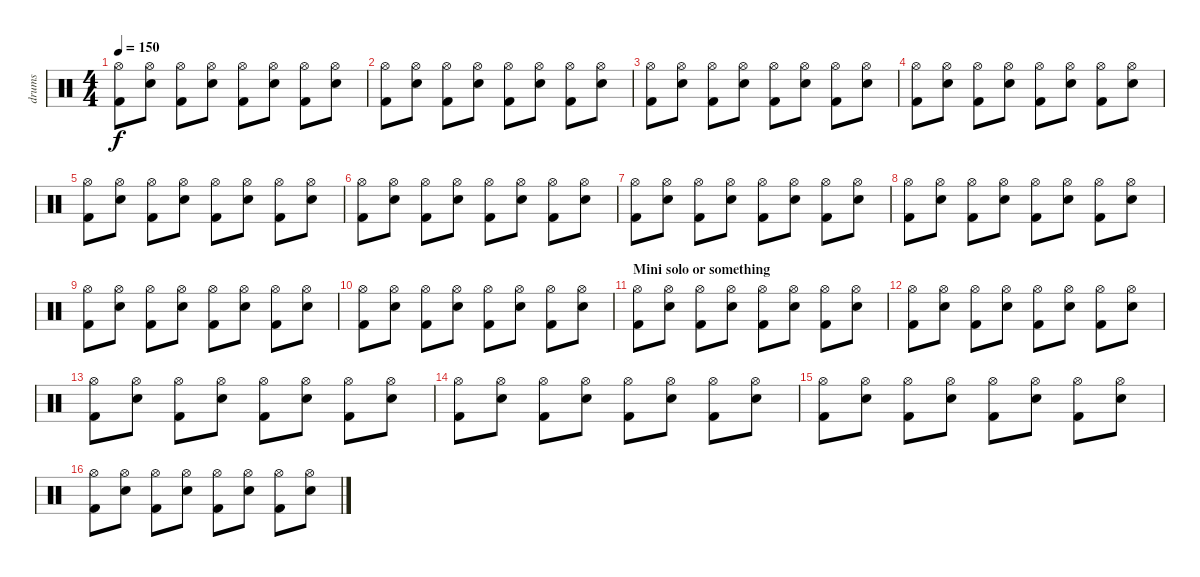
\track ("drums" "drums") {instrument percussion}
\staff {score}
\articulation defaults
\ts (4 4)
\tempo 150
\clef neutral
\ks c
("Hi-Hat (open)" "Kick (hit) 2").8{dy f} ("Hi-Hat (open)" "Snare (hit) 2").8 ("Hi-Hat (open)" "Kick (hit) 2").8 ("Hi-Hat (open)" "Snare (hit) 2").8 ("Hi-Hat (open)" "Kick (hit) 2").8 ("Hi-Hat (open)" "Snare (hit) 2").8 ("Hi-Hat (open)" "Kick (hit) 2").8 ("Hi-Hat (open)" "Snare (hit) 2").8 |
("Hi-Hat (open)" "Kick (hit) 2").8 ("Hi-Hat (open)" "Snare (hit) 2").8 ("Hi-Hat (open)" "Kick (hit) 2").8 ("Hi-Hat (open)" "Snare (hit) 2").8 ("Hi-Hat (open)" "Kick (hit) 2").8 ("Hi-Hat (open)" "Snare (hit) 2").8 ("Hi-Hat (open)" "Kick (hit) 2").8 ("Hi-Hat (open)" "Snare (hit) 2").8 |
("Hi-Hat (open)" "Kick (hit) 2").8 ("Hi-Hat (open)" "Snare (hit) 2").8 ("Hi-Hat (open)" "Kick (hit) 2").8 ("Hi-Hat (open)" "Snare (hit) 2").8 ("Hi-Hat (open)" "Kick (hit) 2").8 ("Hi-Hat (open)" "Snare (hit) 2").8 ("Hi-Hat (open)" "Kick (hit) 2").8 ("Hi-Hat (open)" "Snare (hit) 2").8 |
("Hi-Hat (open)" "Kick (hit) 2").8 ("Hi-Hat (open)" "Snare (hit) 2").8 ("Hi-Hat (open)" "Kick (hit) 2").8 ("Hi-Hat (open)" "Snare (hit) 2").8 ("Hi-Hat (open)" "Kick (hit) 2").8 ("Hi-Hat (open)" "Snare (hit) 2").8 ("Hi-Hat (open)" "Kick (hit) 2").8 ("Hi-Hat (open)" "Snare (hit) 2").8 |
("Hi-Hat (open)" "Kick (hit) 2").8 ("Hi-Hat (open)" "Snare (hit) 2").8 ("Hi-Hat (open)" "Kick (hit) 2").8 ("Hi-Hat (open)" "Snare (hit) 2").8 ("Hi-Hat (open)" "Kick (hit) 2").8 ("Hi-Hat (open)" "Snare (hit) 2").8 ("Hi-Hat (open)" "Kick (hit) 2").8 ("Hi-Hat (open)" "Snare (hit) 2").8 |
("Hi-Hat (open)" "Kick (hit) 2").8 ("Hi-Hat (open)" "Snare (hit) 2").8 ("Hi-Hat (open)" "Kick (hit) 2").8 ("Hi-Hat (open)" "Snare (hit) 2").8 ("Hi-Hat (open)" "Kick (hit) 2").8 ("Hi-Hat (open)" "Snare (hit) 2").8 ("Hi-Hat (open)" "Kick (hit) 2").8 ("Hi-Hat (open)" "Snare (hit) 2").8 |
("Hi-Hat (open)" "Kick (hit) 2").8 ("Hi-Hat (open)" "Snare (hit) 2").8 ("Hi-Hat (open)" "Kick (hit) 2").8 ("Hi-Hat (open)" "Snare (hit) 2").8 ("Hi-Hat (open)" "Kick (hit) 2").8 ("Hi-Hat (open)" "Snare (hit) 2").8 ("Hi-Hat (open)" "Kick (hit) 2").8 ("Hi-Hat (open)" "Snare (hit) 2").8 |
("Hi-Hat (open)" "Kick (hit) 2").8 ("Hi-Hat (open)" "Snare (hit) 2").8 ("Hi-Hat (open)" "Kick (hit) 2").8 ("Hi-Hat (open)" "Snare (hit) 2").8 ("Hi-Hat (open)" "Kick (hit) 2").8 ("Hi-Hat (open)" "Snare (hit) 2").8 ("Hi-Hat (open)" "Kick (hit) 2").8 ("Hi-Hat (open)" "Snare (hit) 2").8 |
("Hi-Hat (open)" "Kick (hit) 2").8 ("Hi-Hat (open)" "Snare (hit) 2").8 ("Hi-Hat (open)" "Kick (hit) 2").8 ("Hi-Hat (open)" "Snare (hit) 2").8 ("Hi-Hat (open)" "Kick (hit) 2").8 ("Hi-Hat (open)" "Snare (hit) 2").8 ("Hi-Hat (open)" "Kick (hit) 2").8 ("Hi-Hat (open)" "Snare (hit) 2").8 |
("Hi-Hat (open)" "Kick (hit) 2").8 ("Hi-Hat (open)" "Snare (hit) 2").8 ("Hi-Hat (open)" "Kick (hit) 2").8 ("Hi-Hat (open)" "Snare (hit) 2").8 ("Hi-Hat (open)" "Kick (hit) 2").8 ("Hi-Hat (open)" "Snare (hit) 2").8 ("Hi-Hat (open)" "Kick (hit) 2").8 ("Hi-Hat (open)" "Snare (hit) 2").8 |
\section ("" "Mini solo or something")
("Hi-Hat (open)" "Kick (hit) 2").8 ("Hi-Hat (open)" "Snare (hit) 2").8 ("Hi-Hat (open)" "Kick (hit) 2").8 ("Hi-Hat (open)" "Snare (hit) 2").8 ("Hi-Hat (open)" "Kick (hit) 2").8 ("Hi-Hat (open)" "Snare (hit) 2").8 ("Hi-Hat (open)" "Kick (hit) 2").8 ("Hi-Hat (open)" "Snare (hit) 2").8 |
("Hi-Hat (open)" "Kick (hit) 2").8 ("Hi-Hat (open)" "Snare (hit) 2").8 ("Hi-Hat (open)" "Kick (hit) 2").8 ("Hi-Hat (open)" "Snare (hit) 2").8 ("Hi-Hat (open)" "Kick (hit) 2").8 ("Hi-Hat (open)" "Snare (hit) 2").8 ("Hi-Hat (open)" "Kick (hit) 2").8 ("Hi-Hat (open)" "Snare (hit) 2").8 |
("Hi-Hat (open)" "Kick (hit) 2").8 ("Hi-Hat (open)" "Snare (hit) 2").8 ("Hi-Hat (open)" "Kick (hit) 2").8 ("Hi-Hat (open)" "Snare (hit) 2").8 ("Hi-Hat (open)" "Kick (hit) 2").8 ("Hi-Hat (open)" "Snare (hit) 2").8 ("Hi-Hat (open)" "Kick (hit) 2").8 ("Hi-Hat (open)" "Snare (hit) 2").8 |
("Hi-Hat (open)" "Kick (hit) 2").8 ("Hi-Hat (open)" "Snare (hit) 2").8 ("Hi-Hat (open)" "Kick (hit) 2").8 ("Hi-Hat (open)" "Snare (hit) 2").8 ("Hi-Hat (open)" "Kick (hit) 2").8 ("Hi-Hat (open)" "Snare (hit) 2").8 ("Hi-Hat (open)" "Kick (hit) 2").8 ("Hi-Hat (open)" "Snare (hit) 2").8 |
("Hi-Hat (open)" "Kick (hit) 2").8 ("Hi-Hat (open)" "Snare (hit) 2").8 ("Hi-Hat (open)" "Kick (hit) 2").8 ("Hi-Hat (open)" "Snare (hit) 2").8 ("Hi-Hat (open)" "Kick (hit) 2").8 ("Hi-Hat (open)" "Snare (hit) 2").8 ("Hi-Hat (open)" "Kick (hit) 2").8 ("Hi-Hat (open)" "Snare (hit) 2").8 |
("Hi-Hat (open)" "Kick (hit) 2").8 ("Hi-Hat (open)" "Snare (hit) 2").8 ("Hi-Hat (open)" "Kick (hit) 2").8 ("Hi-Hat (open)" "Snare (hit) 2").8 ("Hi-Hat (open)" "Kick (hit) 2").8 ("Hi-Hat (open)" "Snare (hit) 2").8 ("Hi-Hat (open)" "Kick (hit) 2").8 ("Hi-Hat (open)" "Snare (hit) 2").8
